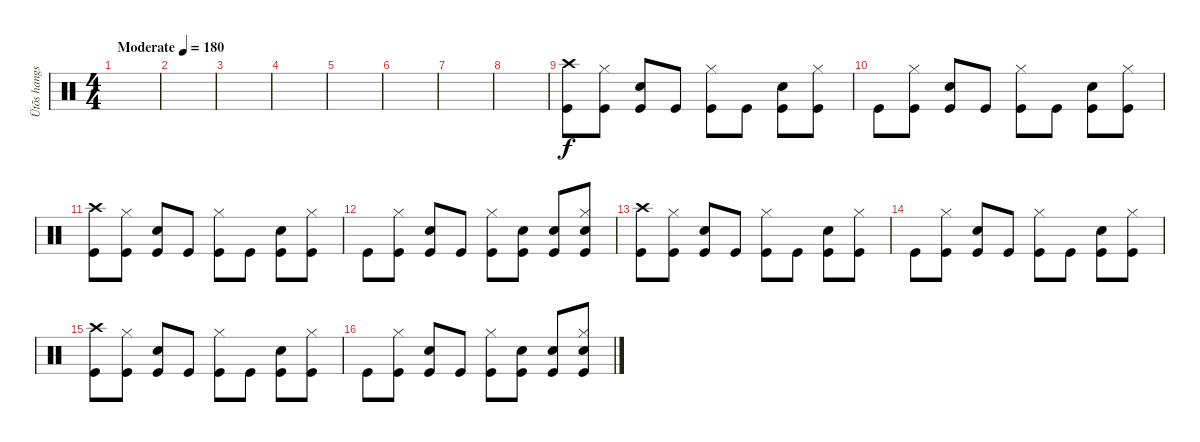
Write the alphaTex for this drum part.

\track ("Ütõs hangszer" "Ütõs hangs") {instrument percussion}
\staff {score}
\articulation defaults
\ts (4 4)
\tempo (180 "Moderate")
\clef neutral
\ks c
|
|
|
|
|
|
|
|
("Crash high (hit)" "Kick (hit)").8 ("Hi-Hat (closed)" "Kick (hit)").8 ("Electric Snare (hit)" "Kick (hit)").8 "Kick (hit)".8 ("Hi-Hat (closed)" "Kick (hit)").8 "Kick (hit)".8 ("Electric Snare (hit)" "Kick (hit)").8 ("Hi-Hat (closed)" "Kick (hit)").8 |
"Kick (hit)".8 ("Hi-Hat (closed)" "Kick (hit)").8 ("Electric Snare (hit)" "Kick (hit)").8 "Kick (hit)".8 ("Hi-Hat (closed)" "Kick (hit)").8 "Kick (hit)".8 ("Electric Snare (hit)" "Kick (hit)").8 ("Hi-Hat (closed)" "Kick (hit)").8 |
("Crash high (hit)" "Kick (hit)").8 ("Hi-Hat (closed)" "Kick (hit)").8 ("Electric Snare (hit)" "Kick (hit)").8 "Kick (hit)".8 ("Hi-Hat (closed)" "Kick (hit)").8 "Kick (hit)".8 ("Electric Snare (hit)" "Kick (hit)").8 ("Hi-Hat (closed)" "Kick (hit)").8 |
"Kick (hit)".8 ("Hi-Hat (closed)" "Kick (hit)").8 ("Electric Snare (hit)" "Kick (hit)").8 "Kick (hit)".8 ("Hi-Hat (closed)" "Kick (hit)").8 ("Electric Snare (hit)" "Kick (hit)").8 ("Electric Snare (hit)" "Kick (hit)").8 ("Hi-Hat (closed)" "Electric Snare (hit)" "Kick (hit)").8 |
("Crash high (hit)" "Kick (hit)").8 ("Hi-Hat (closed)" "Kick (hit)").8 ("Electric Snare (hit)" "Kick (hit)").8 "Kick (hit)".8 ("Hi-Hat (closed)" "Kick (hit)").8 "Kick (hit)".8 ("Electric Snare (hit)" "Kick (hit)").8 ("Hi-Hat (closed)" "Kick (hit)").8 |
"Kick (hit)".8 ("Hi-Hat (closed)" "Kick (hit)").8 ("Electric Snare (hit)" "Kick (hit)").8 "Kick (hit)".8 ("Hi-Hat (closed)" "Kick (hit)").8 "Kick (hit)".8 ("Electric Snare (hit)" "Kick (hit)").8 ("Hi-Hat (closed)" "Kick (hit)").8 |
("Crash high (hit)" "Kick (hit)").8 ("Hi-Hat (closed)" "Kick (hit)").8 ("Electric Snare (hit)" "Kick (hit)").8 "Kick (hit)".8 ("Hi-Hat (closed)" "Kick (hit)").8 "Kick (hit)".8 ("Electric Snare (hit)" "Kick (hit)").8 ("Hi-Hat (closed)" "Kick (hit)").8 |
"Kick (hit)".8 ("Hi-Hat (closed)" "Kick (hit)").8 ("Electric Snare (hit)" "Kick (hit)").8 "Kick (hit)".8 ("Hi-Hat (closed)" "Kick (hit)").8 ("Electric Snare (hit)" "Kick (hit)").8 ("Electric Snare (hit)" "Kick (hit)").8 ("Hi-Hat (closed)" "Electric Snare (hit)" "Kick (hit)").8
